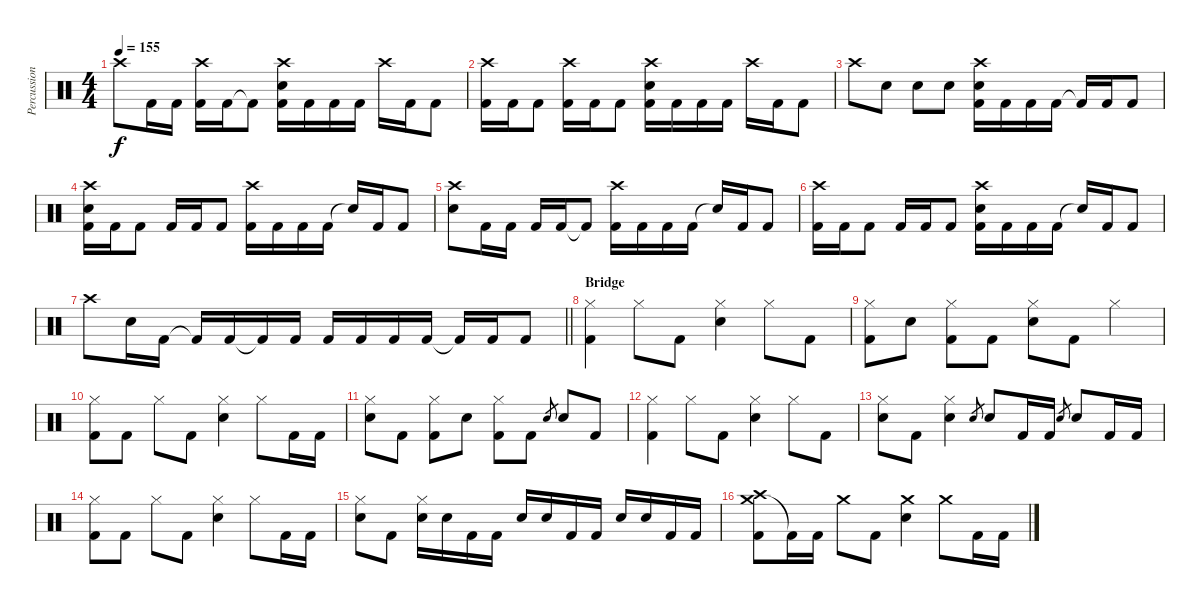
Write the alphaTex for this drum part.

\track ("Percussion" "Percussion") {instrument percussion}
\staff {score}
\articulation defaults
\ts (4 4)
\tempo 155
\clef neutral
\ks c "Crash high (hit)".8{dy f} "Kick (hit) 2".16 "Kick (hit) 2".16
("Crash high (hit)" "Kick (hit) 2").16 "Kick (hit) 2".16 "Kick (hit) 2"{t}.8 ("Crash high (hit)" "Electric Snare (hit)" "Kick (hit) 2").16 "Kick (hit) 2".16 "Kick (hit) 2".16 "Kick (hit) 2".16 "Crash high (hit)".16 "Kick (hit) 2".16 "Kick (hit) 2".8 |
("Crash high (hit)" "Kick (hit) 2").16 "Kick (hit) 2".16 "Kick (hit) 2".8 ("Crash high (hit)" "Kick (hit) 2").16 "Kick (hit) 2".16 "Kick (hit) 2".8 ("Crash high (hit)" "Electric Snare (hit)" "Kick (hit) 2").16 "Kick (hit) 2".16 "Kick (hit) 2".16 "Kick (hit) 2".16 "Crash high (hit)".16 "Kick (hit) 2".16 "Kick (hit) 2".8 |
"Crash high (hit)".8 "Electric Snare (hit)".8 "Electric Snare (hit)".8 "Electric Snare (hit)".8 ("Crash high (hit)" "Electric Snare (hit)" "Kick (hit) 2").16 "Kick (hit) 2".16 "Kick (hit) 2".16 "Kick (hit) 2".16 "Kick (hit) 2"{t}.16 "Kick (hit) 2".16 "Kick (hit) 2".8 |
("Crash high (hit)" "Electric Snare (hit)" "Kick (hit) 2").16 "Kick (hit) 2".16 "Kick (hit) 2".8 "Kick (hit) 2".16 "Kick (hit) 2".16 "Kick (hit) 2".8 ("Crash high (hit)" "Kick (hit) 2").16 "Kick (hit) 2".16 "Kick (hit) 2".16 "Kick (hit) 2".16 "Snare (hit)"{t}.16 "Kick (hit) 2".16 "Kick (hit) 2".8 |
("Crash high (hit)" "Electric Snare (hit)").8 "Kick (hit) 2".16 "Kick (hit) 2".16 "Kick (hit) 2".16 "Kick (hit) 2".16 "Kick (hit) 2"{t}.8 ("Crash high (hit)" "Kick (hit) 2").16 "Kick (hit) 2".16 "Kick (hit) 2".16 "Kick (hit) 2".16 "Snare (hit)"{t}.16 "Kick (hit) 2".16 "Kick (hit) 2".8 |
("Crash high (hit)" "Kick (hit) 2").16 "Kick (hit) 2".16 "Kick (hit) 2".8 "Kick (hit) 2".16 "Kick (hit) 2".16 "Kick (hit) 2".8 ("Crash high (hit)" "Electric Snare (hit)" "Kick (hit) 2").16 "Kick (hit) 2".16 "Kick (hit) 2".16 "Kick (hit) 2".16 "Snare (hit)"{t}.16 "Kick (hit) 2".16 "Kick (hit) 2".8 |
\barLineRight lightlight "Crash high (hit)".8 "Electric Snare (hit)".16 "Kick (hit) 2".16 "Kick (hit) 2"{t}.16 "Kick (hit) 2".16 "Kick (hit) 2"{t}.16 "Kick (hit) 2".16 "Kick (hit) 2".16 "Kick (hit) 2".16 "Kick (hit) 2".16 "Kick (hit) 2".16 "Kick (hit) 2"{t}.16 "Kick (hit) 2".16 "Kick (hit) 2".8
|
\section ("" "Bridge")
("Hi-Hat (closed)" "Kick (hit) 2").4 "Hi-Hat (closed)".8 "Kick (hit) 2".8 ("Hi-Hat (closed)" "Electric Snare (hit)").4 "Hi-Hat (closed)".8 "Kick (hit) 2".8 |
("Hi-Hat (closed)" "Kick (hit) 2").8 "Electric Snare (hit)".8 ("Hi-Hat (closed)" "Kick (hit) 2").8 "Kick (hit) 2".8 ("Hi-Hat (closed)" "Electric Snare (hit)").8 "Kick (hit) 2".8 "Hi-Hat (closed)".4 |
("Hi-Hat (closed)" "Kick (hit) 2").8 "Kick (hit) 2".8 "Hi-Hat (closed)".8 "Kick (hit) 2".8 ("Hi-Hat (closed)" "Electric Snare (hit)").4 "Hi-Hat (closed)".8 "Kick (hit) 2".16 "Kick (hit) 2".16 |
("Hi-Hat (closed)" "Electric Snare (hit)").8 "Kick (hit) 2".8 ("Hi-Hat (closed)" "Kick (hit) 2").8 "Electric Snare (hit)".8 ("Hi-Hat (closed)" "Kick (hit) 2").8 "Kick (hit) 2".8 "Electric Snare (hit)".8{gr} "Electric Snare (hit)".8 "Kick (hit) 2".8 |
("Hi-Hat (closed)" "Kick (hit) 2").4 "Hi-Hat (closed)".8 "Kick (hit) 2".8 ("Hi-Hat (closed)" "Electric Snare (hit)").4 "Hi-Hat (closed)".8 "Kick (hit) 2".8 |
("Hi-Hat (closed)" "Electric Snare (hit)").8 "Kick (hit) 2".8 ("Hi-Hat (closed)" "Electric Snare (hit)").4 "Electric Snare (hit)".8{gr} "Electric Snare (hit)".8 "Kick (hit) 2".16 "Kick (hit) 2".16 "Electric Snare (hit)".8{gr} "Electric Snare (hit)".8 "Kick (hit) 2".16 "Kick (hit) 2".16 |
("Hi-Hat (closed)" "Kick (hit) 2").8 "Kick (hit) 2".8 "Hi-Hat (closed)".8 "Kick (hit) 2".8 ("Hi-Hat (closed)" "Electric Snare (hit)").4 "Hi-Hat (closed)".8 "Kick (hit) 2".16 "Kick (hit) 2".16 |
("Hi-Hat (closed)" "Electric Snare (hit)").8 "Kick (hit) 2".8 ("Hi-Hat (closed)" "Electric Snare (hit)").16 "Electric Snare (hit)".16 "Kick (hit) 2".16 "Kick (hit) 2".16 "Electric Snare (hit)".16 "Electric Snare (hit)".16 "Kick (hit) 2".16 "Kick (hit) 2".16 "Electric Snare (hit)".16 "Electric Snare (hit)".16 "Kick (hit) 2".16 "Kick (hit) 2".16 |
("Crash medium (hit)" "Crash high (hit)" "Kick (hit) 2").8 "Kick (hit) 2"{t}.16 "Kick (hit) 2".16 "Crash medium (hit)".8 "Kick (hit) 2".8 ("Crash medium (hit)" "Electric Snare (hit)").4 "Crash medium (hit)".8 "Kick (hit) 2".16 "Kick (hit) 2".16
